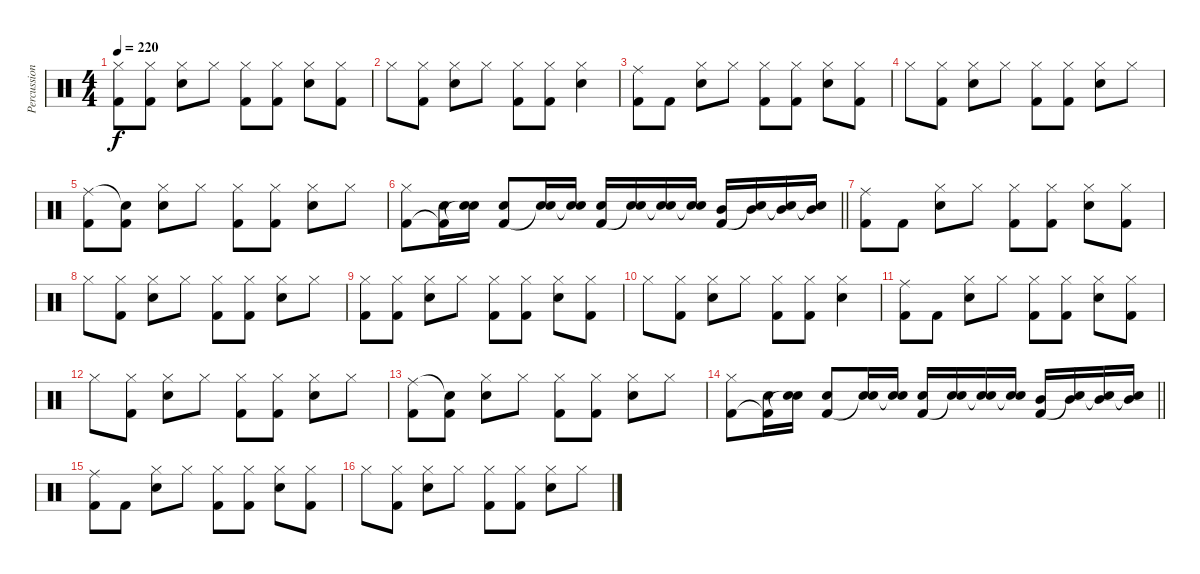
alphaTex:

\track ("Percussion" "Percussion") {instrument percussion}
\staff {score}
\articulation defaults
\ts (4 4)
\tempo 220
\clef neutral
\ks c
("Hi-Hat (closed)" "Kick (hit) 2").8{dy f} ("Hi-Hat (closed)" "Kick (hit) 2").8 ("Hi-Hat (closed)" "Electric Snare (hit)").8 "Hi-Hat (closed)".8 ("Hi-Hat (closed)" "Kick (hit) 2").8 ("Hi-Hat (closed)" "Kick (hit) 2").8 ("Hi-Hat (closed)" "Electric Snare (hit)").8 ("Hi-Hat (closed)" "Kick (hit) 2").8 |
"Hi-Hat (closed)".8 ("Hi-Hat (closed)" "Kick (hit) 2").8 ("Hi-Hat (closed)" "Electric Snare (hit)").8 "Hi-Hat (closed)".8 ("Hi-Hat (closed)" "Kick (hit) 2").8 ("Hi-Hat (closed)" "Kick (hit) 2").8 ("Hi-Hat (closed)" "Electric Snare (hit)").4 |
("Ride (middle)" "Kick (hit) 2").8 "Kick (hit) 2".8 ("Hi-Hat (closed)" "Electric Snare (hit)").8 "Hi-Hat (closed)".8 ("Hi-Hat (closed)" "Kick (hit) 2").8 ("Hi-Hat (closed)" "Kick (hit) 2").8 ("Hi-Hat (closed)" "Electric Snare (hit)").8 ("Hi-Hat (closed)" "Kick (hit) 2").8 |
"Hi-Hat (closed)".8 ("Hi-Hat (closed)" "Kick (hit) 2").8 ("Hi-Hat (closed)" "Electric Snare (hit)").8 "Hi-Hat (closed)".8 ("Hi-Hat (closed)" "Kick (hit) 2").8 ("Hi-Hat (closed)" "Kick (hit) 2").8 ("Hi-Hat (closed)" "Electric Snare (hit)").8 "Hi-Hat (closed)".8 |
("Ride (middle)" "Kick (hit) 2").8 ("Snare (hit)"{t} "Kick (hit) 2").8 ("Hi-Hat (closed)" "Electric Snare (hit)").8 "Hi-Hat (closed)".8 ("Hi-Hat (closed)" "Kick (hit) 2").8 ("Hi-Hat (closed)" "Kick (hit) 2").8 ("Hi-Hat (closed)" "Electric Snare (hit)").8 "Hi-Hat (closed)".8 |
\barLineRight lightlight
("Hi-Hat (closed)" "Kick (hit) 2").8 ("Electric Snare (hit)" "Kick (hit) 2"{t}).16 ("Electric Snare (hit)" "Snare (hit)"{t}).16 ("Electric Snare (hit)" "Kick (hit) 2").8 ("Electric Snare (hit)" "Snare (hit)"{t}).16 ("Electric Snare (hit)" "Snare (hit)"{t}).16 ("Electric Snare (hit)" "Kick (hit) 2").16 ("Electric Snare (hit)" "Snare (hit)"{t}).16 ("Electric Snare (hit)" "Snare (hit)"{t}).16 ("Electric Snare (hit)" "Snare (hit)"{t}).16 ("Mid Tom (hit)" "Kick (hit) 2").16 ("Mid Tom (hit)" "Snare (hit)"{t}).16 ("Mid Tom (hit)" "Snare (hit)"{t}).16 ("Mid Tom (hit)" "Snare (hit)"{t}).16 |
("Ride (middle)" "Kick (hit) 2").8 "Kick (hit) 2".8 ("Hi-Hat (closed)" "Electric Snare (hit)").8 "Hi-Hat (closed)".8 ("Hi-Hat (closed)" "Kick (hit) 2").8 ("Hi-Hat (closed)" "Kick (hit) 2").8 ("Hi-Hat (closed)" "Electric Snare (hit)").8 ("Hi-Hat (closed)" "Kick (hit) 2").8 |
"Hi-Hat (closed)".8 ("Hi-Hat (closed)" "Kick (hit) 2").8 ("Hi-Hat (closed)" "Electric Snare (hit)").8 "Hi-Hat (closed)".8 ("Hi-Hat (closed)" "Kick (hit) 2").8 ("Hi-Hat (closed)" "Kick (hit) 2").8 ("Hi-Hat (closed)" "Electric Snare (hit)").8 "Hi-Hat (closed)".8 |
("Hi-Hat (closed)" "Kick (hit) 2").8 ("Hi-Hat (closed)" "Kick (hit) 2").8 ("Hi-Hat (closed)" "Electric Snare (hit)").8 "Hi-Hat (closed)".8 ("Hi-Hat (closed)" "Kick (hit) 2").8 ("Hi-Hat (closed)" "Kick (hit) 2").8 ("Hi-Hat (closed)" "Electric Snare (hit)").8 ("Hi-Hat (closed)" "Kick (hit) 2").8 |
"Hi-Hat (closed)".8 ("Hi-Hat (closed)" "Kick (hit) 2").8 ("Hi-Hat (closed)" "Electric Snare (hit)").8 "Hi-Hat (closed)".8 ("Hi-Hat (closed)" "Kick (hit) 2").8 ("Hi-Hat (closed)" "Kick (hit) 2").8 ("Hi-Hat (closed)" "Electric Snare (hit)").4 |
("Ride (middle)" "Kick (hit) 2").8 "Kick (hit) 2".8 ("Hi-Hat (closed)" "Electric Snare (hit)").8 "Hi-Hat (closed)".8 ("Hi-Hat (closed)" "Kick (hit) 2").8 ("Hi-Hat (closed)" "Kick (hit) 2").8 ("Hi-Hat (closed)" "Electric Snare (hit)").8 ("Hi-Hat (closed)" "Kick (hit) 2").8 |
"Hi-Hat (closed)".8 ("Hi-Hat (closed)" "Kick (hit) 2").8 ("Hi-Hat (closed)" "Electric Snare (hit)").8 "Hi-Hat (closed)".8 ("Hi-Hat (closed)" "Kick (hit) 2").8 ("Hi-Hat (closed)" "Kick (hit) 2").8 ("Hi-Hat (closed)" "Electric Snare (hit)").8 "Hi-Hat (closed)".8 |
("Ride (middle)" "Kick (hit) 2").8 ("Snare (hit)"{t} "Kick (hit) 2").8 ("Hi-Hat (closed)" "Electric Snare (hit)").8 "Hi-Hat (closed)".8 ("Hi-Hat (closed)" "Kick (hit) 2").8 ("Hi-Hat (closed)" "Kick (hit) 2").8 ("Hi-Hat (closed)" "Electric Snare (hit)").8 "Hi-Hat (closed)".8 |
\barLineRight lightlight
("Hi-Hat (closed)" "Kick (hit) 2").8 ("Electric Snare (hit)" "Kick (hit) 2"{t}).16 ("Electric Snare (hit)" "Snare (hit)"{t}).16 ("Electric Snare (hit)" "Kick (hit) 2").8 ("Electric Snare (hit)" "Snare (hit)"{t}).16 ("Electric Snare (hit)" "Snare (hit)"{t}).16 ("Electric Snare (hit)" "Kick (hit) 2").16 ("Electric Snare (hit)" "Snare (hit)"{t}).16 ("Electric Snare (hit)" "Snare (hit)"{t}).16 ("Electric Snare (hit)" "Snare (hit)"{t}).16 ("Mid Tom (hit)" "Kick (hit) 2").16 ("Mid Tom (hit)" "Snare (hit)"{t}).16 ("Mid Tom (hit)" "Snare (hit)"{t}).16 ("Mid Tom (hit)" "Snare (hit)"{t}).16 |
("Ride (middle)" "Kick (hit) 2").8 "Kick (hit) 2".8 ("Hi-Hat (closed)" "Electric Snare (hit)").8 "Hi-Hat (closed)".8 ("Hi-Hat (closed)" "Kick (hit) 2").8 ("Hi-Hat (closed)" "Kick (hit) 2").8 ("Hi-Hat (closed)" "Electric Snare (hit)").8 ("Hi-Hat (closed)" "Kick (hit) 2").8 |
"Hi-Hat (closed)".8 ("Hi-Hat (closed)" "Kick (hit) 2").8 ("Hi-Hat (closed)" "Electric Snare (hit)").8 "Hi-Hat (closed)".8 ("Hi-Hat (closed)" "Kick (hit) 2").8 ("Hi-Hat (closed)" "Kick (hit) 2").8 ("Hi-Hat (closed)" "Electric Snare (hit)").8 "Hi-Hat (closed)".8
